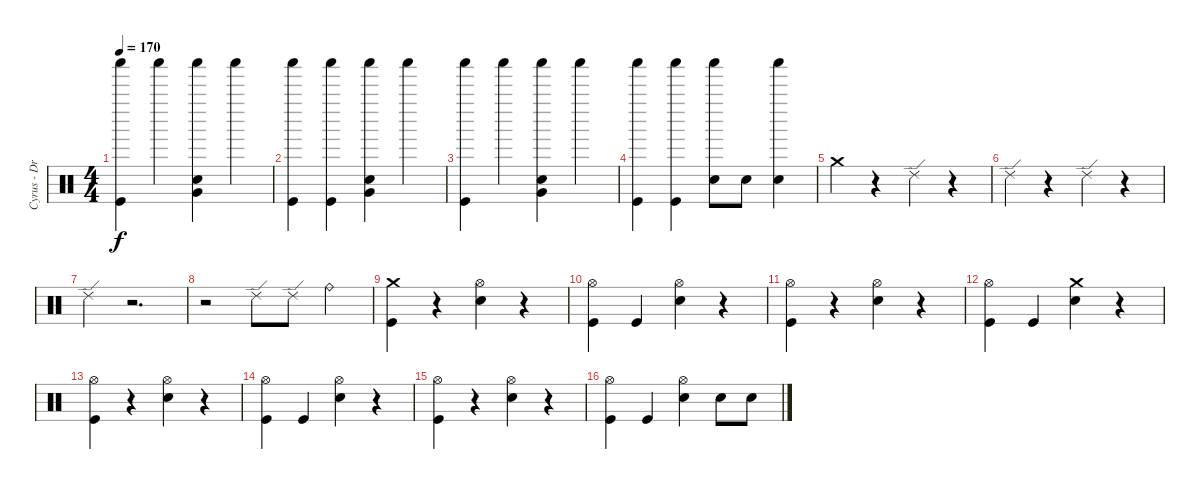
\track ("Cyrus - Drums" "Cyrus - Dr") {instrument percussion}
\staff {score}
\articulation defaults
\ts (4 4)
\tempo 170
\clef neutral
\ks c
("Shaker (hit)" "Kick (hit)").4{dy f} "Shaker (hit)".4 ("Shaker (hit)" "Electric Snare (hit)" "Very Low Tom (hit)").4 "Shaker (hit)".4 |
("Shaker (hit)" "Kick (hit)").4 ("Shaker (hit)" "Kick (hit)").4 ("Shaker (hit)" "Electric Snare (hit)" "Very Low Tom (hit)").4 "Shaker (hit)".4 |
("Shaker (hit)" "Kick (hit)").4 "Shaker (hit)".4 ("Shaker (hit)" "Electric Snare (hit)" "Very Low Tom (hit)").4 "Shaker (hit)".4 |
("Shaker (hit)" "Kick (hit)").4 ("Shaker (hit)" "Kick (hit)").4 ("Shaker (hit)" "Electric Snare (hit)").8 "Electric Snare (hit)".8 ("Shaker (hit)" "Electric Snare (hit)").4 |
"Crash medium (hit)".4 r.4 "Ride (edge) 2".4 r.4 |
"Ride (edge) 2".4 r.4 "Ride (edge) 2".4 r.4 |
"Ride (edge) 2".4 r.2{d} |
r.2 "Ride (edge) 2".8 "Ride (edge) 2".8 "Ride (bell)".4 |
("Crash medium (hit)" "Kick (hit)").4 r.4 ("Hi-Hat (open)" "Electric Snare (hit)").4 r.4 |
("Hi-Hat (open)" "Kick (hit)").4 "Kick (hit)".4 ("Hi-Hat (open)" "Electric Snare (hit)").4 r.4 |
("Hi-Hat (open)" "Kick (hit)").4 r.4 ("Hi-Hat (open)" "Electric Snare (hit)").4 r.4 |
("Hi-Hat (open)" "Kick (hit)").4 "Kick (hit)".4 ("Crash medium (hit)" "Electric Snare (hit)").4 r.4 |
("Hi-Hat (open)" "Kick (hit)").4 r.4 ("Hi-Hat (open)" "Electric Snare (hit)").4 r.4 |
("Hi-Hat (open)" "Kick (hit)").4 "Kick (hit)".4 ("Hi-Hat (open)" "Electric Snare (hit)").4 r.4 |
("Hi-Hat (open)" "Kick (hit)").4 r.4 ("Hi-Hat (open)" "Electric Snare (hit)").4 r.4 |
("Hi-Hat (open)" "Kick (hit)").4 "Kick (hit)".4 ("Hi-Hat (open)" "Electric Snare (hit)").4 "Electric Snare (hit)".8 "Electric Snare (hit)".8
